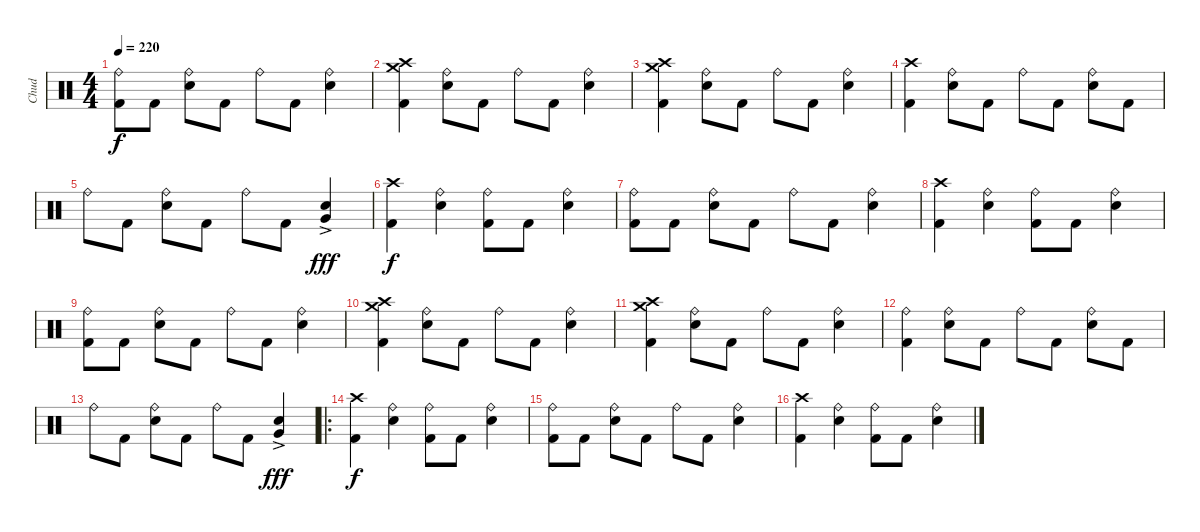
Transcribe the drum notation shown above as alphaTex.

\track ("Chud" "Chud") {instrument percussion}
\staff {score}
\articulation defaults
\ts (4 4)
\tempo 220
\clef neutral
\ks c
("Ride (bell)" "Kick (hit) 2").8{dy f} "Kick (hit) 2".8 ("Ride (bell)" "Electric Snare (hit)").8 "Kick (hit) 2".8 "Ride (bell)".8 "Kick (hit) 2".8 ("Ride (bell)" "Electric Snare (hit)").4 |
("Crash high (hit)" "Crash medium (hit)" "Kick (hit) 2").4 ("Ride (bell)" "Electric Snare (hit)").8 "Kick (hit) 2".8 "Ride (bell)".8 "Kick (hit) 2".8 ("Ride (bell)" "Electric Snare (hit)").4 |
("Crash high (hit)" "Crash medium (hit)" "Kick (hit) 2").4 ("Ride (bell)" "Electric Snare (hit)").8 "Kick (hit) 2".8 "Ride (bell)".8 "Kick (hit) 2".8 ("Ride (bell)" "Electric Snare (hit)").4 |
("Crash high (hit)" "Kick (hit) 2").4 ("Ride (bell)" "Electric Snare (hit)").8 "Kick (hit) 2".8 "Ride (bell)".8 "Kick (hit) 2".8 ("Ride (bell)" "Electric Snare (hit)").8 "Kick (hit) 2".8 |
"Ride (bell)".8 "Kick (hit) 2".8 ("Ride (bell)" "Electric Snare (hit)").8 "Kick (hit) 2".8 "Ride (bell)".8 "Kick (hit) 2".8 ("Electric Snare (hit)" "Very Low Tom (hit)"{ac}).4{dy fff} |
("Crash high (hit)" "Kick (hit) 2").4{dy f} ("Ride (bell)" "Electric Snare (hit)").4 ("Ride (bell)" "Kick (hit) 2").8 "Kick (hit) 2".8 ("Ride (bell)" "Electric Snare (hit)").4 |
("Ride (bell)" "Kick (hit) 2").8 "Kick (hit) 2".8 ("Ride (bell)" "Electric Snare (hit)").8 "Kick (hit) 2".8 "Ride (bell)".8 "Kick (hit) 2".8 ("Ride (bell)" "Electric Snare (hit)").4 |
("Crash high (hit)" "Kick (hit) 2").4 ("Ride (bell)" "Electric Snare (hit)").4 ("Ride (bell)" "Kick (hit) 2").8 "Kick (hit) 2".8 ("Ride (bell)" "Electric Snare (hit)").4 |
("Ride (bell)" "Kick (hit) 2").8 "Kick (hit) 2".8 ("Ride (bell)" "Electric Snare (hit)").8 "Kick (hit) 2".8 "Ride (bell)".8 "Kick (hit) 2".8 ("Ride (bell)" "Electric Snare (hit)").4 |
("Crash high (hit)" "Crash medium (hit)" "Kick (hit) 2").4 ("Ride (bell)" "Electric Snare (hit)").8 "Kick (hit) 2".8 "Ride (bell)".8 "Kick (hit) 2".8 ("Ride (bell)" "Electric Snare (hit)").4 |
("Crash high (hit)" "Crash medium (hit)" "Kick (hit) 2").4 ("Ride (bell)" "Electric Snare (hit)").8 "Kick (hit) 2".8 "Ride (bell)".8 "Kick (hit) 2".8 ("Ride (bell)" "Electric Snare (hit)").4 |
("Ride (bell)" "Kick (hit) 2").4 ("Ride (bell)" "Electric Snare (hit)").8 "Kick (hit) 2".8 "Ride (bell)".8 "Kick (hit) 2".8 ("Ride (bell)" "Electric Snare (hit)").8 "Kick (hit) 2".8 |
"Ride (bell)".8 "Kick (hit) 2".8 ("Ride (bell)" "Electric Snare (hit)").8 "Kick (hit) 2".8 "Ride (bell)".8 "Kick (hit) 2".8 ("Electric Snare (hit)" "Very Low Tom (hit)"{ac}).4{dy fff} |
\ro
("Crash high (hit)" "Kick (hit) 2").4{dy f} ("Ride (bell)" "Electric Snare (hit)").4 ("Ride (bell)" "Kick (hit) 2").8 "Kick (hit) 2".8 ("Ride (bell)" "Electric Snare (hit)").4 |
("Ride (bell)" "Kick (hit) 2").8 "Kick (hit) 2".8 ("Ride (bell)" "Electric Snare (hit)").8 "Kick (hit) 2".8 "Ride (bell)".8 "Kick (hit) 2".8 ("Ride (bell)" "Electric Snare (hit)").4 |
("Crash high (hit)" "Kick (hit) 2").4 ("Ride (bell)" "Electric Snare (hit)").4 ("Ride (bell)" "Kick (hit) 2").8 "Kick (hit) 2".8 ("Ride (bell)" "Electric Snare (hit)").4
